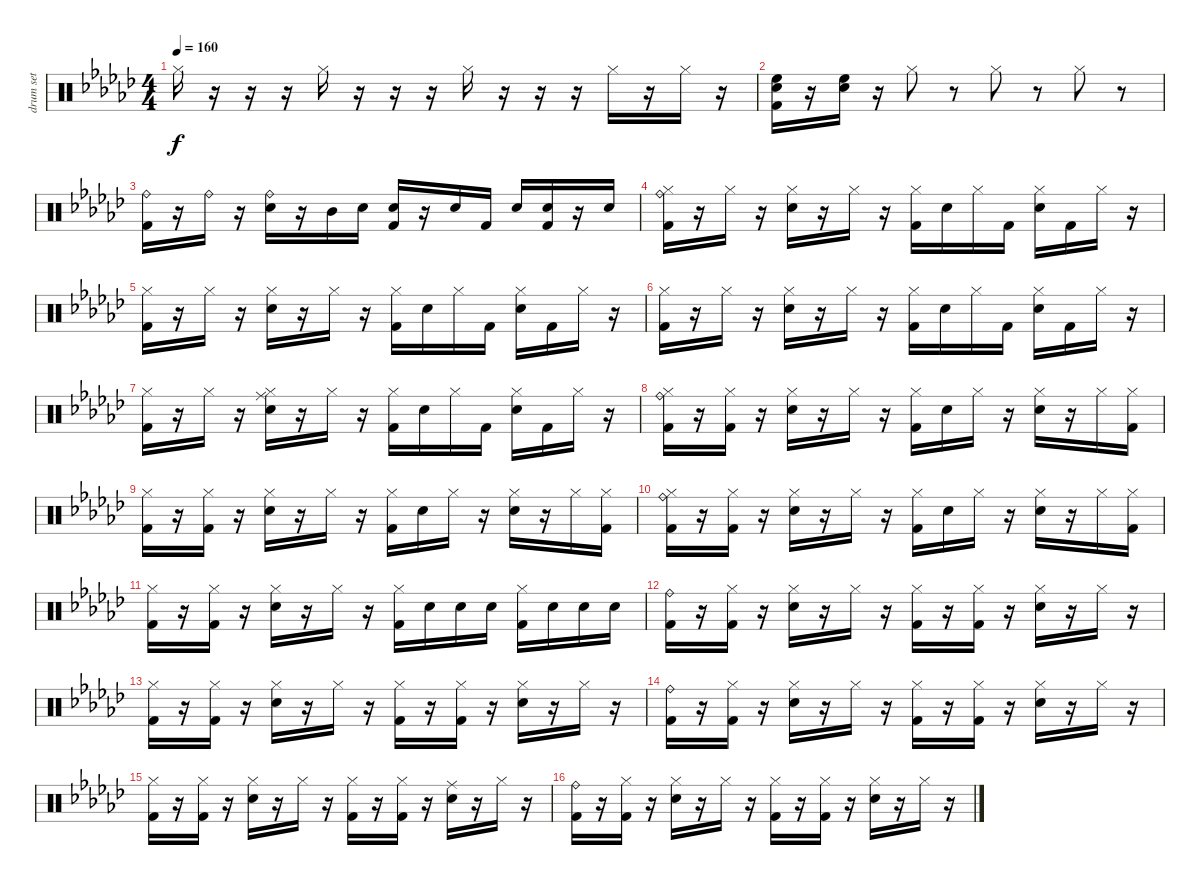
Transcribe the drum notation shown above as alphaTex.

\track ("drum set" "drum set") {instrument percussion}
\staff {score}
\articulation defaults
\ts (4 4)
\tempo 160
\clef neutral
\ks gb "Hi-Hat (closed)".16{dy f}
r.16 r.16 r.16 "Hi-Hat (closed)".16 r.16 r.16 r.16 "Hi-Hat (closed)".16 r.16 r.16 r.16 "Hi-Hat (closed)".16 r.16 "Hi-Hat (closed)".16 r.16 |
("High Floor Tom (hit)" "Kick (hit) 2" "Electric Snare (hit)").16 r.16 ("High Floor Tom (hit)" "Electric Snare (hit)").16 r.16 "Hi-Hat (closed)".8 r.8 "Hi-Hat (closed)".8 r.8 "Hi-Hat (closed)".8 r.8 |
("Ride (bell)" "Kick (hit) 2").16 r.16 "Ride (bell)".16 r.16 ("Ride (bell)" "Snare (hit) 2").16 r.16 "Mid Tom (hit)".16 "Snare (hit) 2".16 ("Snare (hit) 2" "Kick (hit) 2").16 r.16 "Snare (hit) 2".16 "Kick (hit) 2".16 "Snare (hit) 2".16 ("Snare (hit) 2" "Kick (hit) 2").16 r.16 "Snare (hit) 2".16 |
("Hi-Hat (closed)" "Ride (bell)" "Kick (hit) 2").16 r.16 "Hi-Hat (closed)".16 r.16 ("Hi-Hat (closed)" "Snare (hit) 2").16 r.16 "Hi-Hat (closed)".16 r.16 ("Hi-Hat (closed)" "Kick (hit) 2").16 "Snare (hit) 2".16 "Hi-Hat (closed)".16 "Kick (hit) 2".16 ("Hi-Hat (closed)" "Snare (hit) 2").16 "Kick (hit) 2".16 "Hi-Hat (closed)".16 r.16 |
("Hi-Hat (closed)" "Kick (hit) 2").16 r.16 "Hi-Hat (closed)".16 r.16 ("Hi-Hat (closed)" "Snare (hit) 2").16 r.16 "Hi-Hat (closed)".16 r.16 ("Hi-Hat (closed)" "Kick (hit) 2").16 "Snare (hit) 2".16 "Hi-Hat (closed)".16 "Kick (hit) 2".16 ("Hi-Hat (closed)" "Snare (hit) 2").16 "Kick (hit) 2".16 "Hi-Hat (closed)".16 r.16 |
("Hi-Hat (closed)" "Kick (hit) 2").16 r.16 "Hi-Hat (closed)".16 r.16 ("Hi-Hat (closed)" "Snare (hit) 2").16 r.16 "Hi-Hat (closed)".16 r.16 ("Hi-Hat (closed)" "Kick (hit) 2").16 "Snare (hit) 2".16 "Hi-Hat (closed)".16 "Kick (hit) 2".16 ("Hi-Hat (closed)" "Snare (hit) 2").16 "Kick (hit) 2".16 "Hi-Hat (closed)".16 r.16 |
("Hi-Hat (closed)" "Kick (hit) 2").16 r.16 "Hi-Hat (closed)".16 r.16 ("Hi-Hat (closed)" "Snare (hit) 2" "Ride (middle)").16 r.16 "Hi-Hat (closed)".16 r.16 ("Hi-Hat (closed)" "Kick (hit) 2").16 "Snare (hit) 2".16 "Hi-Hat (closed)".16 "Kick (hit) 2".16 ("Hi-Hat (closed)" "Snare (hit) 2").16 "Kick (hit) 2".16 "Hi-Hat (closed)".16 r.16 |
("Hi-Hat (closed)" "Ride (bell)" "Kick (hit) 2").16 r.16 ("Hi-Hat (closed)" "Kick (hit) 2").16 r.16 ("Hi-Hat (closed)" "Snare (hit) 2").16 r.16 "Hi-Hat (closed)".16 r.16 ("Hi-Hat (closed)" "Kick (hit) 2").16 "Snare (hit) 2".16 "Hi-Hat (closed)".16 r.16 ("Hi-Hat (closed)" "Snare (hit) 2").16 r.16 "Hi-Hat (closed)".16 ("Hi-Hat (closed)" "Kick (hit) 2").16 |
("Hi-Hat (closed)" "Kick (hit) 2").16 r.16 ("Hi-Hat (closed)" "Kick (hit) 2").16 r.16 ("Hi-Hat (closed)" "Snare (hit) 2").16 r.16 "Hi-Hat (closed)".16 r.16 ("Hi-Hat (closed)" "Kick (hit) 2").16 "Snare (hit) 2".16 "Hi-Hat (closed)".16 r.16 ("Hi-Hat (closed)" "Snare (hit) 2").16 r.16 "Hi-Hat (closed)".16 ("Hi-Hat (closed)" "Kick (hit) 2").16 |
("Hi-Hat (closed)" "Ride (bell)" "Kick (hit) 2").16 r.16 ("Hi-Hat (closed)" "Kick (hit) 2").16 r.16 ("Hi-Hat (closed)" "Snare (hit) 2").16 r.16 "Hi-Hat (closed)".16 r.16 ("Hi-Hat (closed)" "Kick (hit) 2").16 "Snare (hit) 2".16 "Hi-Hat (closed)".16 r.16 ("Hi-Hat (closed)" "Snare (hit) 2").16 r.16 "Hi-Hat (closed)".16 ("Hi-Hat (closed)" "Kick (hit) 2").16 |
("Hi-Hat (closed)" "Kick (hit) 2").16 r.16 ("Hi-Hat (closed)" "Kick (hit) 2").16 r.16 ("Hi-Hat (closed)" "Snare (hit) 2").16 r.16 "Hi-Hat (closed)".16 r.16 ("Hi-Hat (closed)" "Kick (hit) 2").16 "Snare (hit) 2".16 "Snare (hit) 2".16 "Snare (hit) 2".16 ("Hi-Hat (closed)" "Kick (hit) 2").16 "Snare (hit) 2".16 "Snare (hit) 2".16 "Snare (hit) 2".16 |
("Ride (bell)" "Kick (hit) 2").16 r.16 ("Hi-Hat (closed)" "Kick (hit) 2").16 r.16 ("Hi-Hat (closed)" "Snare (hit) 2").16 r.16 "Hi-Hat (closed)".16 r.16 ("Hi-Hat (closed)" "Kick (hit) 2").16 r.16 ("Hi-Hat (closed)" "Kick (hit) 2").16 r.16 ("Hi-Hat (closed)" "Snare (hit) 2").16 r.16 "Hi-Hat (closed)".16 r.16 |
("Hi-Hat (closed)" "Kick (hit) 2").16 r.16 ("Hi-Hat (closed)" "Kick (hit) 2").16 r.16 ("Hi-Hat (closed)" "Snare (hit) 2").16 r.16 "Hi-Hat (closed)".16 r.16 ("Hi-Hat (closed)" "Kick (hit) 2").16 r.16 ("Hi-Hat (closed)" "Kick (hit) 2").16 r.16 ("Hi-Hat (closed)" "Snare (hit) 2").16 r.16 "Hi-Hat (closed)".16 r.16 |
("Ride (bell)" "Kick (hit) 2").16 r.16 ("Hi-Hat (closed)" "Kick (hit) 2").16 r.16 ("Hi-Hat (closed)" "Snare (hit) 2").16 r.16 "Hi-Hat (closed)".16 r.16 ("Hi-Hat (closed)" "Kick (hit) 2").16 r.16 ("Hi-Hat (closed)" "Kick (hit) 2").16 r.16 ("Hi-Hat (closed)" "Snare (hit) 2").16 r.16 "Hi-Hat (closed)".16 r.16 |
("Hi-Hat (closed)" "Kick (hit) 2").16 r.16 ("Hi-Hat (closed)" "Kick (hit) 2").16 r.16 ("Hi-Hat (closed)" "Snare (hit) 2").16 r.16 "Hi-Hat (closed)".16 r.16 ("Hi-Hat (closed)" "Kick (hit) 2").16 r.16 ("Hi-Hat (closed)" "Kick (hit) 2").16 r.16 ("Ride (middle)" "Snare (hit) 2").16 r.16 "Hi-Hat (closed)".16 r.16 |
("Ride (bell)" "Kick (hit) 2").16 r.16 ("Hi-Hat (closed)" "Kick (hit) 2").16 r.16 ("Hi-Hat (closed)" "Snare (hit) 2").16 r.16 "Hi-Hat (closed)".16 r.16 ("Hi-Hat (closed)" "Kick (hit) 2").16 r.16 ("Hi-Hat (closed)" "Kick (hit) 2").16 r.16 ("Hi-Hat (closed)" "Snare (hit) 2").16 r.16 "Hi-Hat (closed)".16 r.16
